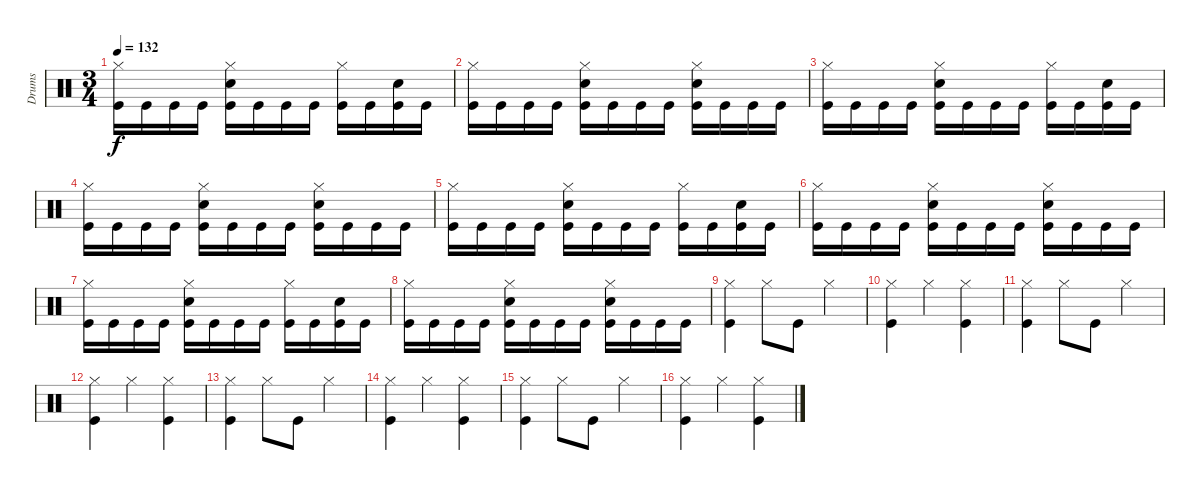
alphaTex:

\track ("Drums" "Drums") {instrument percussion}
\staff {score}
\articulation defaults
\ts (3 4)
\tempo 132
\clef neutral
\ks c
("Hi-Hat (closed)" "Kick (hit)").16{dy f} "Kick (hit)".16 "Kick (hit)".16 "Kick (hit)".16 ("Hi-Hat (closed)" "Kick (hit)" "Snare (hit) 2").16 "Kick (hit)".16 "Kick (hit)".16 "Kick (hit)".16 ("Hi-Hat (closed)" "Kick (hit)").16 "Kick (hit)".16 ("Kick (hit)" "Snare (hit) 2").16 "Kick (hit)".16 |
("Hi-Hat (closed)" "Kick (hit)").16 "Kick (hit)".16 "Kick (hit)".16 "Kick (hit)".16 ("Hi-Hat (closed)" "Kick (hit)" "Snare (hit) 2").16 "Kick (hit)".16 "Kick (hit)".16 "Kick (hit)".16 ("Hi-Hat (closed)" "Kick (hit)" "Snare (hit) 2").16 "Kick (hit)".16 "Kick (hit)".16 "Kick (hit)".16 |
("Hi-Hat (closed)" "Kick (hit)").16 "Kick (hit)".16 "Kick (hit)".16 "Kick (hit)".16 ("Hi-Hat (closed)" "Kick (hit)" "Snare (hit) 2").16 "Kick (hit)".16 "Kick (hit)".16 "Kick (hit)".16 ("Hi-Hat (closed)" "Kick (hit)").16 "Kick (hit)".16 ("Kick (hit)" "Snare (hit) 2").16 "Kick (hit)".16 |
("Hi-Hat (closed)" "Kick (hit)").16 "Kick (hit)".16 "Kick (hit)".16 "Kick (hit)".16 ("Hi-Hat (closed)" "Kick (hit)" "Snare (hit) 2").16 "Kick (hit)".16 "Kick (hit)".16 "Kick (hit)".16 ("Hi-Hat (closed)" "Kick (hit)" "Snare (hit) 2").16 "Kick (hit)".16 "Kick (hit)".16 "Kick (hit)".16 |
("Hi-Hat (closed)" "Kick (hit)").16 "Kick (hit)".16 "Kick (hit)".16 "Kick (hit)".16 ("Hi-Hat (closed)" "Kick (hit)" "Snare (hit) 2").16 "Kick (hit)".16 "Kick (hit)".16 "Kick (hit)".16 ("Hi-Hat (closed)" "Kick (hit)").16 "Kick (hit)".16 ("Kick (hit)" "Snare (hit) 2").16 "Kick (hit)".16 |
("Hi-Hat (closed)" "Kick (hit)").16 "Kick (hit)".16 "Kick (hit)".16 "Kick (hit)".16 ("Hi-Hat (closed)" "Kick (hit)" "Snare (hit) 2").16 "Kick (hit)".16 "Kick (hit)".16 "Kick (hit)".16 ("Hi-Hat (closed)" "Kick (hit)" "Snare (hit) 2").16 "Kick (hit)".16 "Kick (hit)".16 "Kick (hit)".16 |
("Hi-Hat (closed)" "Kick (hit)").16 "Kick (hit)".16 "Kick (hit)".16 "Kick (hit)".16 ("Hi-Hat (closed)" "Kick (hit)" "Snare (hit) 2").16 "Kick (hit)".16 "Kick (hit)".16 "Kick (hit)".16 ("Hi-Hat (closed)" "Kick (hit)").16 "Kick (hit)".16 ("Kick (hit)" "Snare (hit) 2").16 "Kick (hit)".16 |
("Hi-Hat (closed)" "Kick (hit)").16 "Kick (hit)".16 "Kick (hit)".16 "Kick (hit)".16 ("Hi-Hat (closed)" "Kick (hit)" "Snare (hit) 2").16 "Kick (hit)".16 "Kick (hit)".16 "Kick (hit)".16 ("Hi-Hat (closed)" "Kick (hit)" "Snare (hit) 2").16 "Kick (hit)".16 "Kick (hit)".16 "Kick (hit)".16 |
("Hi-Hat (closed)" "Kick (hit)").4 "Hi-Hat (closed)".8 "Kick (hit)".8 "Hi-Hat (closed)".4 |
("Hi-Hat (closed)" "Kick (hit)").4 "Hi-Hat (closed)".4 ("Hi-Hat (closed)" "Kick (hit)").4 |
("Hi-Hat (closed)" "Kick (hit)").4 "Hi-Hat (closed)".8 "Kick (hit)".8 "Hi-Hat (closed)".4 |
("Hi-Hat (closed)" "Kick (hit)").4 "Hi-Hat (closed)".4 ("Hi-Hat (closed)" "Kick (hit)").4 |
("Hi-Hat (closed)" "Kick (hit)").4 "Hi-Hat (closed)".8 "Kick (hit)".8 "Hi-Hat (closed)".4 |
("Hi-Hat (closed)" "Kick (hit)").4 "Hi-Hat (closed)".4 ("Hi-Hat (closed)" "Kick (hit)").4 |
("Hi-Hat (closed)" "Kick (hit)").4 "Hi-Hat (closed)".8 "Kick (hit)".8 "Hi-Hat (closed)".4 |
("Hi-Hat (closed)" "Kick (hit)").4 "Hi-Hat (closed)".4 ("Hi-Hat (closed)" "Kick (hit)").4
